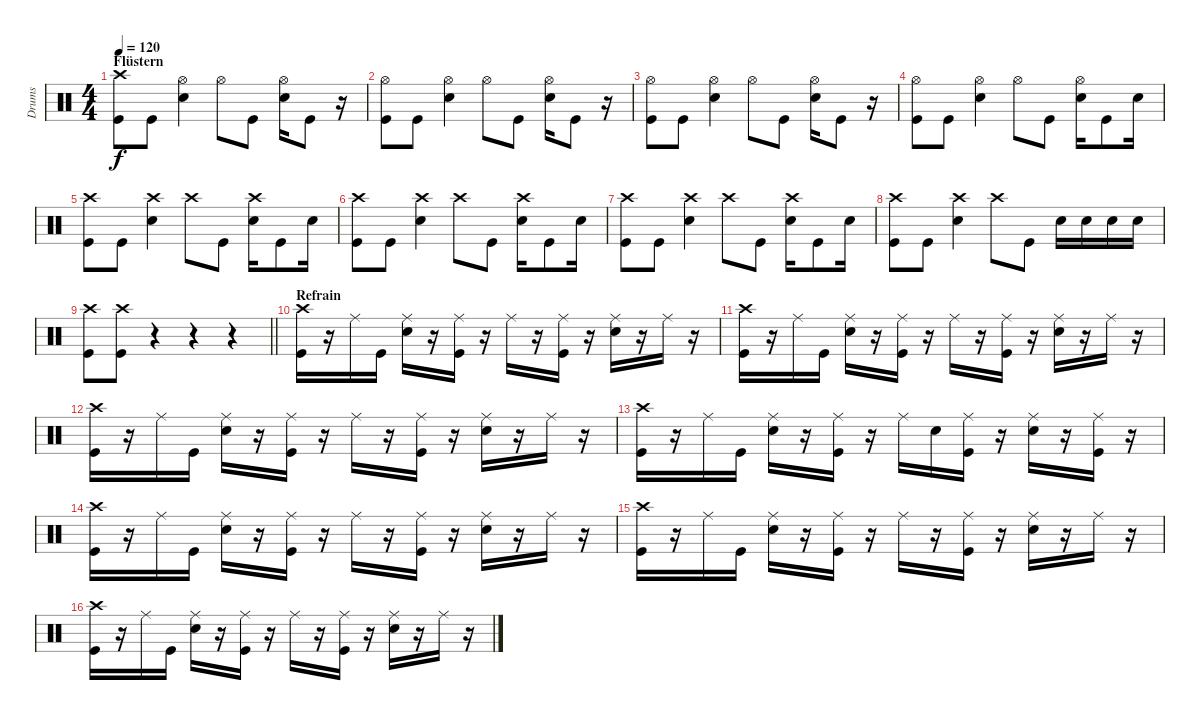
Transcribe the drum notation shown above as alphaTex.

\track ("Drums" "Drums") {instrument percussion}
\staff {score}
\articulation defaults
\ts (4 4)
\section ("" "Flüstern")
\tempo 120
\clef neutral
\ks c
("Crash high (hit)" "Kick (hit)").8{dy f} "Kick (hit)".8 ("Hi-Hat (open)" "Snare (hit) 2").4 "Hi-Hat (open)".8 "Kick (hit)".8 ("Snare (hit) 2" "Hi-Hat (open)").16 "Kick (hit)".8 r.16 |
("Hi-Hat (open)" "Kick (hit)").8 "Kick (hit)".8 ("Hi-Hat (open)" "Snare (hit) 2").4 "Hi-Hat (open)".8 "Kick (hit)".8 ("Snare (hit) 2" "Hi-Hat (open)").16 "Kick (hit)".8 r.16 |
("Hi-Hat (open)" "Kick (hit)").8 "Kick (hit)".8 ("Hi-Hat (open)" "Snare (hit) 2").4 "Hi-Hat (open)".8 "Kick (hit)".8 ("Snare (hit) 2" "Hi-Hat (open)").16 "Kick (hit)".8 r.16 |
("Hi-Hat (open)" "Kick (hit)").8 "Kick (hit)".8 ("Hi-Hat (open)" "Snare (hit) 2").4 "Hi-Hat (open)".8 "Kick (hit)".8 ("Snare (hit) 2" "Hi-Hat (open)").16 "Kick (hit)".8 "Snare (hit) 2".16 |
("Crash high (hit)" "Kick (hit)").8 "Kick (hit)".8 ("Crash high (hit)" "Snare (hit) 2").4 "Crash high (hit)".8 "Kick (hit)".8 ("Snare (hit) 2" "Crash high (hit)").16 "Kick (hit)".8 "Snare (hit) 2".16 |
("Crash high (hit)" "Kick (hit)").8 "Kick (hit)".8 ("Crash high (hit)" "Snare (hit) 2").4 "Crash high (hit)".8 "Kick (hit)".8 ("Snare (hit) 2" "Crash high (hit)").16 "Kick (hit)".8 "Snare (hit) 2".16 |
("Crash high (hit)" "Kick (hit)").8 "Kick (hit)".8 ("Crash high (hit)" "Snare (hit) 2").4 "Crash high (hit)".8 "Kick (hit)".8 ("Snare (hit) 2" "Crash high (hit)").16 "Kick (hit)".8 "Snare (hit) 2".16 |
("Crash high (hit)" "Kick (hit)").8 "Kick (hit)".8 ("Crash high (hit)" "Snare (hit) 2").4 "Crash high (hit)".8 "Kick (hit)".8 "Snare (hit) 2".16 "Snare (hit) 2".16 "Snare (hit) 2".16 "Snare (hit) 2".16 |
\barLineRight lightlight
("Crash high (hit)" "Kick (hit)").8 ("Kick (hit)" "Crash high (hit)").8 r.4 r.4 r.4 |
\section ("" "Refrain")
("Crash high (hit)" "Kick (hit)").16 r.16 "Ride (middle)".16 "Kick (hit)".16 ("Snare (hit) 2" "Ride (middle)").16 r.16 ("Kick (hit)" "Ride (middle)").16 r.16 "Ride (middle)".16 r.16 ("Kick (hit)" "Ride (middle)").16 r.16 ("Snare (hit) 2" "Ride (middle)").16 r.16 "Ride (middle)".16 r.16 |
("Crash high (hit)" "Kick (hit)").16 r.16 "Ride (middle)".16 "Kick (hit)".16 ("Snare (hit) 2" "Ride (middle)").16 r.16 ("Kick (hit)" "Ride (middle)").16 r.16 "Ride (middle)".16 r.16 ("Kick (hit)" "Ride (middle)").16 r.16 ("Snare (hit) 2" "Ride (middle)").16 r.16 "Ride (middle)".16 r.16 |
("Crash high (hit)" "Kick (hit)").16 r.16 "Ride (middle)".16 "Kick (hit)".16 ("Snare (hit) 2" "Ride (middle)").16 r.16 ("Kick (hit)" "Ride (middle)").16 r.16 "Ride (middle)".16 r.16 ("Kick (hit)" "Ride (middle)").16 r.16 ("Snare (hit) 2" "Ride (middle)").16 r.16 "Ride (middle)".16 r.16 |
("Crash high (hit)" "Kick (hit)").16 r.16 "Ride (middle)".16 "Kick (hit)".16 ("Snare (hit) 2" "Ride (middle)").16 r.16 ("Kick (hit)" "Ride (middle)").16 r.16 "Ride (middle)".16 "Snare (hit) 2".16 ("Kick (hit)" "Ride (middle)").16 r.16 ("Snare (hit) 2" "Ride (middle)").16 r.16 ("Ride (middle)" "Kick (hit)").16 r.16 |
("Crash high (hit)" "Kick (hit)").16 r.16 "Ride (middle)".16 "Kick (hit)".16 ("Snare (hit) 2" "Ride (middle)").16 r.16 ("Kick (hit)" "Ride (middle)").16 r.16 "Ride (middle)".16 r.16 ("Kick (hit)" "Ride (middle)").16 r.16 ("Snare (hit) 2" "Ride (middle)").16 r.16 "Ride (middle)".16 r.16 |
("Crash high (hit)" "Kick (hit)").16 r.16 "Ride (middle)".16 "Kick (hit)".16 ("Snare (hit) 2" "Ride (middle)").16 r.16 ("Kick (hit)" "Ride (middle)").16 r.16 "Ride (middle)".16 r.16 ("Kick (hit)" "Ride (middle)").16 r.16 ("Snare (hit) 2" "Ride (middle)").16 r.16 "Ride (middle)".16 r.16 |
("Crash high (hit)" "Kick (hit)").16 r.16 "Ride (middle)".16 "Kick (hit)".16 ("Snare (hit) 2" "Ride (middle)").16 r.16 ("Kick (hit)" "Ride (middle)").16 r.16 "Ride (middle)".16 r.16 ("Kick (hit)" "Ride (middle)").16 r.16 ("Snare (hit) 2" "Ride (middle)").16 r.16 "Ride (middle)".16 r.16
